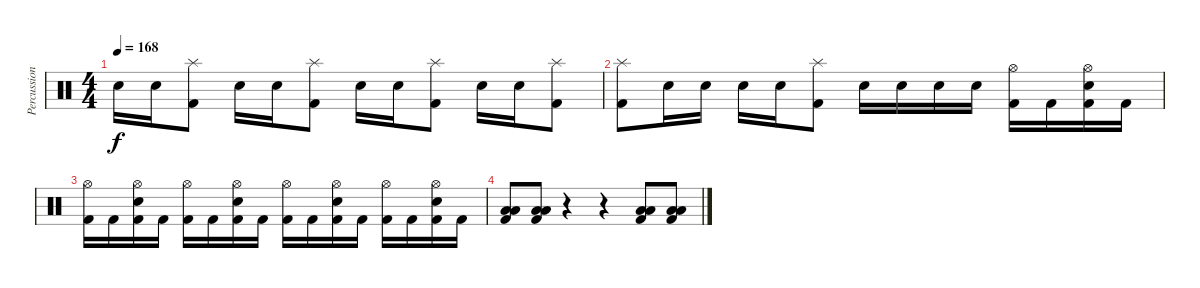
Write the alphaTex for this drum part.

\track ("Percussions" "Percussion") {instrument percussion}
\staff {score}
\articulation defaults
\ts (4 4)
\tempo 168
\clef neutral
\ks c "Snare (hit) 2".16{dy f} "Snare (hit) 2".16
("Splash (hit)" "Kick (hit) 2").8 "Snare (hit) 2".16 "Snare (hit) 2".16 ("Splash (hit)" "Kick (hit) 2").8 "Snare (hit) 2".16 "Snare (hit) 2".16 ("Splash (hit)" "Kick (hit) 2").8 "Snare (hit) 2".16 "Snare (hit) 2".16 ("Splash (hit)" "Kick (hit) 2").8 |
("Splash (hit)" "Kick (hit) 2").8 "Snare (hit) 2".16 "Snare (hit) 2".16 "Snare (hit) 2".16 "Snare (hit) 2".16 ("Splash (hit)" "Kick (hit) 2").8 "Snare (hit) 2".16 "Snare (hit) 2".16 "Snare (hit) 2".16 "Snare (hit) 2".16 ("Hi-Hat (open)" "Kick (hit) 2").16 "Kick (hit) 2".16 ("Hi-Hat (open)" "Snare (hit) 2" "Kick (hit) 2").16 "Kick (hit) 2".16 |
("Hi-Hat (open)" "Kick (hit) 2").16 "Kick (hit) 2".16 ("Hi-Hat (open)" "Snare (hit) 2" "Kick (hit) 2").16 "Kick (hit) 2".16 ("Hi-Hat (open)" "Kick (hit) 2").16 "Kick (hit) 2".16 ("Hi-Hat (open)" "Snare (hit) 2" "Kick (hit) 2").16 "Kick (hit) 2".16 ("Hi-Hat (open)" "Kick (hit) 2").16 "Kick (hit) 2".16 ("Hi-Hat (open)" "Snare (hit) 2" "Kick (hit) 2").16 "Kick (hit) 2".16 ("Hi-Hat (open)" "Kick (hit) 2").16 "Kick (hit) 2".16 ("Hi-Hat (open)" "Snare (hit) 2" "Kick (hit) 2").16 "Kick (hit) 2".16 |
("Low Tom (hit)" "Low Floor Tom (hit)" "Kick (hit) 2").8 ("Low Tom (hit)" "Low Floor Tom (hit)" "Kick (hit) 2").8 r.4 r.4 ("Low Tom (hit)" "Low Floor Tom (hit)" "Kick (hit) 2").8 ("Low Tom (hit)" "Low Floor Tom (hit)" "Kick (hit) 2").8
